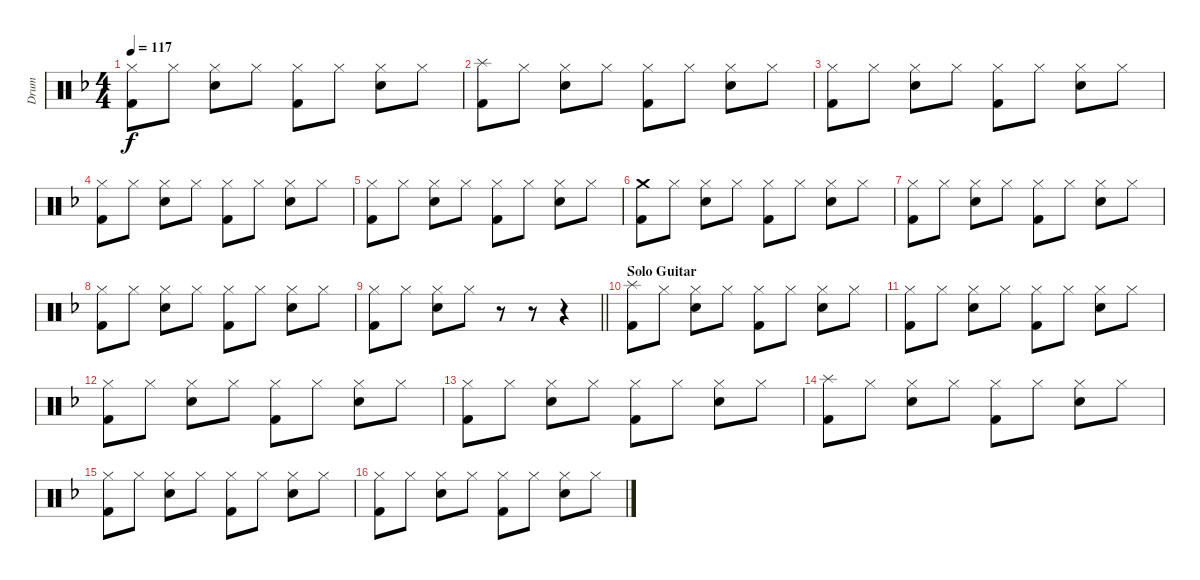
\track ("Drum" "Drum") {instrument percussion}
\staff {score}
\articulation defaults
\ts (4 4)
\tempo 117
\clef neutral
\ks f
("Kick (hit) 2" "Hi-Hat (closed)").8{dy f} "Hi-Hat (closed)".8 ("Snare (hit) 2" "Hi-Hat (closed)").8 "Hi-Hat (closed)".8 ("Kick (hit) 2" "Hi-Hat (closed)").8 "Hi-Hat (closed)".8 ("Snare (hit) 2" "Hi-Hat (closed)").8 "Hi-Hat (closed)".8 |
("Kick (hit) 2" "Splash (hit)").8 "Hi-Hat (closed)".8 ("Snare (hit) 2" "Hi-Hat (closed)").8 "Hi-Hat (closed)".8 ("Kick (hit) 2" "Hi-Hat (closed)").8 "Hi-Hat (closed)".8 ("Snare (hit) 2" "Hi-Hat (closed)").8 "Hi-Hat (closed)".8 |
("Kick (hit) 2" "Hi-Hat (closed)").8 "Hi-Hat (closed)".8 ("Snare (hit) 2" "Hi-Hat (closed)").8 "Hi-Hat (closed)".8 ("Kick (hit) 2" "Hi-Hat (closed)").8 "Hi-Hat (closed)".8 ("Snare (hit) 2" "Hi-Hat (closed)").8 "Hi-Hat (closed)".8 |
("Kick (hit) 2" "Hi-Hat (closed)").8 "Hi-Hat (closed)".8 ("Snare (hit) 2" "Hi-Hat (closed)").8 "Hi-Hat (closed)".8 ("Kick (hit) 2" "Hi-Hat (closed)").8 "Hi-Hat (closed)".8 ("Snare (hit) 2" "Hi-Hat (closed)").8 "Hi-Hat (closed)".8 |
("Kick (hit) 2" "Hi-Hat (closed)").8 "Hi-Hat (closed)".8 ("Snare (hit) 2" "Hi-Hat (closed)").8 "Hi-Hat (closed)".8 ("Kick (hit) 2" "Hi-Hat (closed)").8 "Hi-Hat (closed)".8 ("Snare (hit) 2" "Hi-Hat (closed)").8 "Hi-Hat (closed)".8 |
("Kick (hit) 2" "Crash medium (hit)").8 "Hi-Hat (closed)".8 ("Snare (hit) 2" "Hi-Hat (closed)").8 "Hi-Hat (closed)".8 ("Kick (hit) 2" "Hi-Hat (closed)").8 "Hi-Hat (closed)".8 ("Snare (hit) 2" "Hi-Hat (closed)").8 "Hi-Hat (closed)".8 |
("Kick (hit) 2" "Hi-Hat (closed)").8 "Hi-Hat (closed)".8 ("Snare (hit) 2" "Hi-Hat (closed)").8 "Hi-Hat (closed)".8 ("Kick (hit) 2" "Hi-Hat (closed)").8 "Hi-Hat (closed)".8 ("Snare (hit) 2" "Hi-Hat (closed)").8 "Hi-Hat (closed)".8 |
("Kick (hit) 2" "Hi-Hat (closed)").8 "Hi-Hat (closed)".8 ("Snare (hit) 2" "Hi-Hat (closed)").8 "Hi-Hat (closed)".8 ("Kick (hit) 2" "Hi-Hat (closed)").8 "Hi-Hat (closed)".8 ("Snare (hit) 2" "Hi-Hat (closed)").8 "Hi-Hat (closed)".8 |
\barLineRight lightlight
("Kick (hit) 2" "Hi-Hat (closed)").8 "Hi-Hat (closed)".8 ("Snare (hit) 2" "Hi-Hat (closed)").8 "Hi-Hat (closed)".8 r.8 r.8 r.4 |
\section ("" "Solo Guitar")
("Kick (hit) 2" "Splash (hit)").8 "Hi-Hat (closed)".8 ("Snare (hit) 2" "Hi-Hat (closed)").8 "Hi-Hat (closed)".8 ("Kick (hit) 2" "Hi-Hat (closed)").8 "Hi-Hat (closed)".8 ("Snare (hit) 2" "Hi-Hat (closed)").8 "Hi-Hat (closed)".8 |
("Kick (hit) 2" "Hi-Hat (closed)").8 "Hi-Hat (closed)".8 ("Snare (hit) 2" "Hi-Hat (closed)").8 "Hi-Hat (closed)".8 ("Kick (hit) 2" "Hi-Hat (closed)").8 "Hi-Hat (closed)".8 ("Snare (hit) 2" "Hi-Hat (closed)").8 "Hi-Hat (closed)".8 |
("Kick (hit) 2" "Hi-Hat (closed)").8 "Hi-Hat (closed)".8 ("Snare (hit) 2" "Hi-Hat (closed)").8 "Hi-Hat (closed)".8 ("Kick (hit) 2" "Hi-Hat (closed)").8 "Hi-Hat (closed)".8 ("Snare (hit) 2" "Hi-Hat (closed)").8 "Hi-Hat (closed)".8 |
("Kick (hit) 2" "Hi-Hat (closed)").8 "Hi-Hat (closed)".8 ("Snare (hit) 2" "Hi-Hat (closed)").8 "Hi-Hat (closed)".8 ("Kick (hit) 2" "Hi-Hat (closed)").8 "Hi-Hat (closed)".8 ("Snare (hit) 2" "Hi-Hat (closed)").8 "Hi-Hat (closed)".8 |
("Kick (hit) 2" "Splash (hit)").8 "Hi-Hat (closed)".8 ("Snare (hit) 2" "Hi-Hat (closed)").8 "Hi-Hat (closed)".8 ("Kick (hit) 2" "Hi-Hat (closed)").8 "Hi-Hat (closed)".8 ("Snare (hit) 2" "Hi-Hat (closed)").8 "Hi-Hat (closed)".8 |
("Kick (hit) 2" "Hi-Hat (closed)").8 "Hi-Hat (closed)".8 ("Snare (hit) 2" "Hi-Hat (closed)").8 "Hi-Hat (closed)".8 ("Kick (hit) 2" "Hi-Hat (closed)").8 "Hi-Hat (closed)".8 ("Snare (hit) 2" "Hi-Hat (closed)").8 "Hi-Hat (closed)".8 |
("Kick (hit) 2" "Hi-Hat (closed)").8 "Hi-Hat (closed)".8 ("Snare (hit) 2" "Hi-Hat (closed)").8 "Hi-Hat (closed)".8 ("Kick (hit) 2" "Hi-Hat (closed)").8 "Hi-Hat (closed)".8 ("Snare (hit) 2" "Hi-Hat (closed)").8 "Hi-Hat (closed)".8
